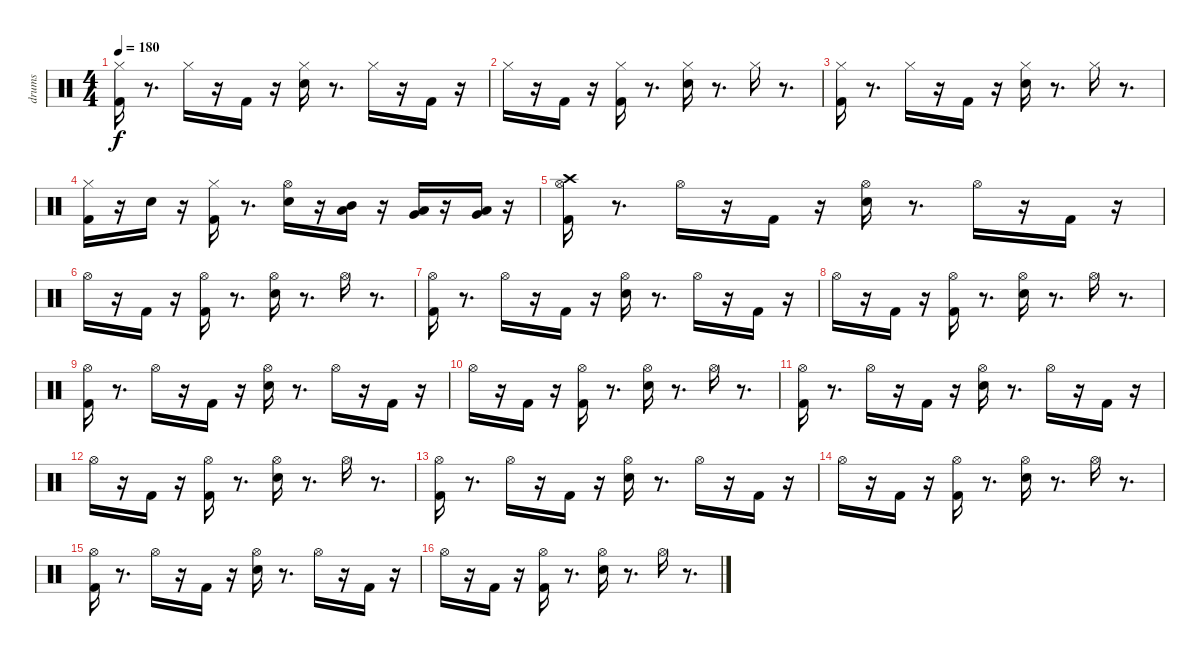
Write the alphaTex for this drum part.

\track ("drums" "drums") {instrument percussion}
\staff {score}
\articulation defaults
\ts (4 4)
\tempo 180
\clef neutral
\ks c
("Kick (hit) 2" "Hi-Hat (closed)").16{dy f} r.8{d} "Hi-Hat (closed)".16 r.16 "Kick (hit) 2".16 r.16 ("Electric Snare (hit)" "Hi-Hat (closed)").16 r.8{d} "Hi-Hat (closed)".16 r.16 "Kick (hit) 2".16 r.16 |
"Hi-Hat (closed)".16 r.16 "Kick (hit) 2".16 r.16 ("Hi-Hat (closed)" "Kick (hit) 2").16 r.8{d} ("Hi-Hat (closed)" "Electric Snare (hit)").16 r.8{d} "Hi-Hat (closed)".16 r.8{d} |
("Kick (hit) 2" "Hi-Hat (closed)").16 r.8{d} "Hi-Hat (closed)".16 r.16 "Kick (hit) 2".16 r.16 ("Electric Snare (hit)" "Hi-Hat (closed)").16 r.8{d} "Hi-Hat (closed)".16 r.8{d} |
("Hi-Hat (closed)" "Kick (hit) 2").16 r.16 "Electric Snare (hit)".16 r.16 ("Kick (hit) 2" "Hi-Hat (closed)").16 r.8{d} ("Hi-Hat (open)" "Electric Snare (hit)").16 r.16 ("Mid Tom (hit)" "Low Tom (hit)").16 r.16 ("Low Tom (hit)" "Very Low Tom (hit)").16 r.16 ("Very Low Tom (hit)" "Low Floor Tom (hit)").16 r.16 |
("Crash high (hit)" "Kick (hit) 2" "Hi-Hat (open)").16 r.8{d} "Hi-Hat (open)".16 r.16 "Kick (hit) 2".16 r.16 ("Electric Snare (hit)" "Hi-Hat (open)").16 r.8{d} "Hi-Hat (open)".16 r.16 "Kick (hit) 2".16 r.16 |
"Hi-Hat (open)".16 r.16 "Kick (hit) 2".16 r.16 ("Hi-Hat (open)" "Kick (hit) 2").16 r.8{d} ("Hi-Hat (open)" "Electric Snare (hit)").16 r.8{d} "Hi-Hat (open)".16 r.8{d} |
("Kick (hit) 2" "Hi-Hat (open)").16 r.8{d} "Hi-Hat (open)".16 r.16 "Kick (hit) 2".16 r.16 ("Electric Snare (hit)" "Hi-Hat (open)").16 r.8{d} "Hi-Hat (open)".16 r.16 "Kick (hit) 2".16 r.16 |
"Hi-Hat (open)".16 r.16 "Kick (hit) 2".16 r.16 ("Hi-Hat (open)" "Kick (hit) 2").16 r.8{d} ("Hi-Hat (open)" "Electric Snare (hit)").16 r.8{d} "Hi-Hat (open)".16 r.8{d} |
("Kick (hit) 2" "Hi-Hat (open)").16 r.8{d} "Hi-Hat (open)".16 r.16 "Kick (hit) 2".16 r.16 ("Electric Snare (hit)" "Hi-Hat (open)").16 r.8{d} "Hi-Hat (open)".16 r.16 "Kick (hit) 2".16 r.16 |
"Hi-Hat (open)".16 r.16 "Kick (hit) 2".16 r.16 ("Hi-Hat (open)" "Kick (hit) 2").16 r.8{d} ("Hi-Hat (open)" "Electric Snare (hit)").16 r.8{d} "Hi-Hat (open)".16 r.8{d} |
("Kick (hit) 2" "Hi-Hat (open)").16 r.8{d} "Hi-Hat (open)".16 r.16 "Kick (hit) 2".16 r.16 ("Electric Snare (hit)" "Hi-Hat (open)").16 r.8{d} "Hi-Hat (open)".16 r.16 "Kick (hit) 2".16 r.16 |
"Hi-Hat (open)".16 r.16 "Kick (hit) 2".16 r.16 ("Hi-Hat (open)" "Kick (hit) 2").16 r.8{d} ("Hi-Hat (open)" "Electric Snare (hit)").16 r.8{d} "Hi-Hat (open)".16 r.8{d} |
("Kick (hit) 2" "Hi-Hat (open)").16 r.8{d} "Hi-Hat (open)".16 r.16 "Kick (hit) 2".16 r.16 ("Electric Snare (hit)" "Hi-Hat (open)").16 r.8{d} "Hi-Hat (open)".16 r.16 "Kick (hit) 2".16 r.16 |
"Hi-Hat (open)".16 r.16 "Kick (hit) 2".16 r.16 ("Hi-Hat (open)" "Kick (hit) 2").16 r.8{d} ("Hi-Hat (open)" "Electric Snare (hit)").16 r.8{d} "Hi-Hat (open)".16 r.8{d} |
("Kick (hit) 2" "Hi-Hat (open)").16 r.8{d} "Hi-Hat (open)".16 r.16 "Kick (hit) 2".16 r.16 ("Electric Snare (hit)" "Hi-Hat (open)").16 r.8{d} "Hi-Hat (open)".16 r.16 "Kick (hit) 2".16 r.16 |
"Hi-Hat (open)".16 r.16 "Kick (hit) 2".16 r.16 ("Hi-Hat (open)" "Kick (hit) 2").16 r.8{d} ("Hi-Hat (open)" "Electric Snare (hit)").16 r.8{d} "Hi-Hat (open)".16 r.8{d}
